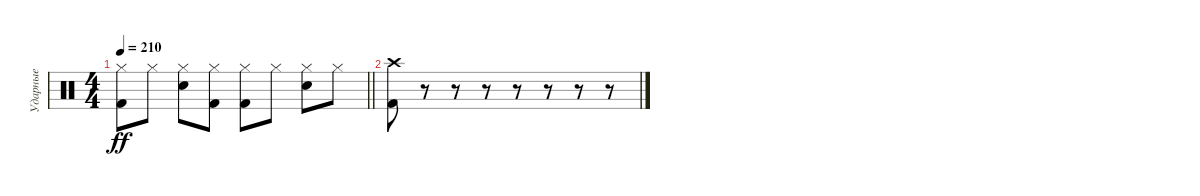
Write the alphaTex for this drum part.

\track ("Ударные" "Ударные") {instrument percussion}
\staff {score}
\articulation defaults
\ts (4 4)
\tempo 210
\clef neutral
\barLineRight lightlight
\ks c
("Hi-Hat (closed)" "Kick (hit) 2").8{dy ff} "Hi-Hat (closed)".8 ("Hi-Hat (closed)" "Snare (hit) 2").8 ("Hi-Hat (closed)" "Kick (hit) 2").8 ("Hi-Hat (closed)" "Kick (hit) 2").8 "Hi-Hat (closed)".8 ("Hi-Hat (closed)" "Snare (hit) 2").8 "Hi-Hat (closed)".8 |
("Crash high (hit)" "Kick (hit) 2").8 r.8 r.8 r.8 r.8 r.8 r.8 r.8
